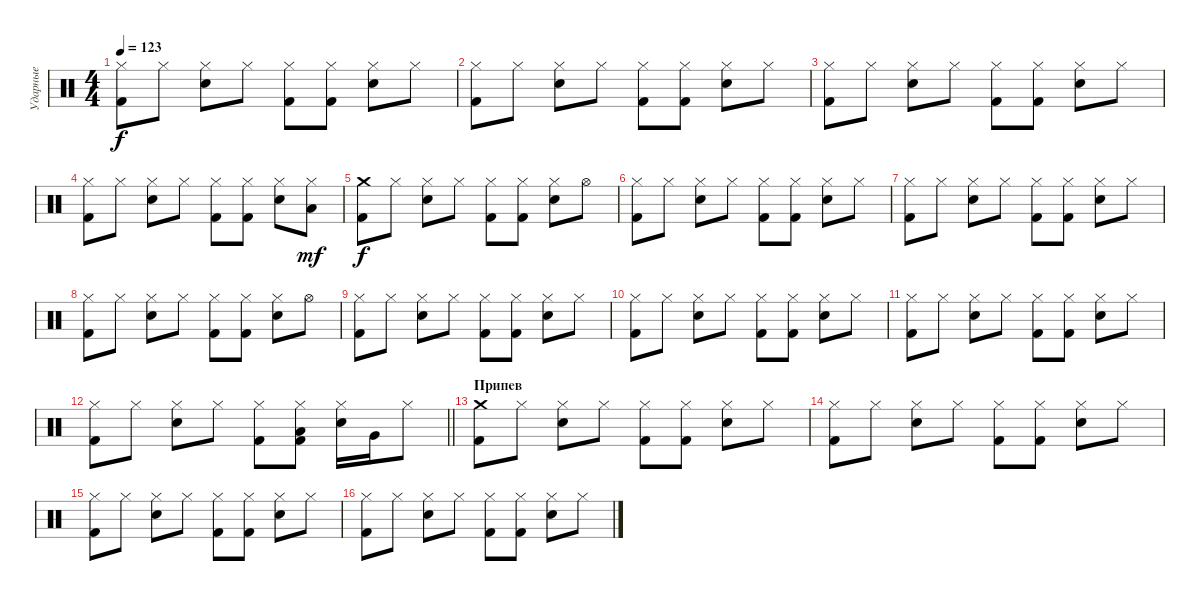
\track ("Ударные" "Ударные") {instrument percussion}
\staff {score}
\articulation defaults
\ts (4 4)
\tempo 123
\clef neutral
\ks c
("Hi-Hat (closed)" "Kick (hit) 2").8{dy f} "Hi-Hat (closed)".8 ("Hi-Hat (closed)" "Electric Snare (hit)").8 "Hi-Hat (closed)".8 ("Hi-Hat (closed)" "Kick (hit) 2").8 ("Hi-Hat (closed)" "Kick (hit) 2").8 ("Hi-Hat (closed)" "Electric Snare (hit)").8 "Hi-Hat (closed)".8 |
("Hi-Hat (closed)" "Kick (hit) 2").8 "Hi-Hat (closed)".8 ("Hi-Hat (closed)" "Electric Snare (hit)").8 "Hi-Hat (closed)".8 ("Hi-Hat (closed)" "Kick (hit) 2").8 ("Hi-Hat (closed)" "Kick (hit) 2").8 ("Hi-Hat (closed)" "Electric Snare (hit)").8 "Hi-Hat (closed)".8 |
("Hi-Hat (closed)" "Kick (hit) 2").8 "Hi-Hat (closed)".8 ("Hi-Hat (closed)" "Electric Snare (hit)").8 "Hi-Hat (closed)".8 ("Hi-Hat (closed)" "Kick (hit) 2").8 ("Hi-Hat (closed)" "Kick (hit) 2").8 ("Hi-Hat (closed)" "Electric Snare (hit)").8 "Hi-Hat (closed)".8 |
("Hi-Hat (closed)" "Kick (hit) 2").8 "Hi-Hat (closed)".8 ("Hi-Hat (closed)" "Electric Snare (hit)").8 "Hi-Hat (closed)".8 ("Hi-Hat (closed)" "Kick (hit) 2").8 ("Hi-Hat (closed)" "Kick (hit) 2").8 ("Hi-Hat (closed)" "Electric Snare (hit)").8 ("Hi-Hat (closed)" "Low Tom (hit)").8{dy mf} |
("Crash medium (hit)" "Kick (hit) 2").8{dy f} "Hi-Hat (closed)".8 ("Hi-Hat (closed)" "Electric Snare (hit)").8 "Hi-Hat (closed)".8 ("Hi-Hat (closed)" "Kick (hit) 2").8 ("Hi-Hat (closed)" "Kick (hit) 2").8 ("Hi-Hat (closed)" "Electric Snare (hit)").8 "Hi-Hat (open)".8 |
("Hi-Hat (closed)" "Kick (hit) 2").8 "Hi-Hat (closed)".8 ("Hi-Hat (closed)" "Electric Snare (hit)").8 "Hi-Hat (closed)".8 ("Hi-Hat (closed)" "Kick (hit) 2").8 ("Hi-Hat (closed)" "Kick (hit) 2").8 ("Hi-Hat (closed)" "Electric Snare (hit)").8 "Hi-Hat (closed)".8 |
("Hi-Hat (closed)" "Kick (hit) 2").8 "Hi-Hat (closed)".8 ("Hi-Hat (closed)" "Electric Snare (hit)").8 "Hi-Hat (closed)".8 ("Hi-Hat (closed)" "Kick (hit) 2").8 ("Hi-Hat (closed)" "Kick (hit) 2").8 ("Hi-Hat (closed)" "Electric Snare (hit)").8 "Hi-Hat (closed)".8 |
("Hi-Hat (closed)" "Kick (hit) 2").8 "Hi-Hat (closed)".8 ("Hi-Hat (closed)" "Electric Snare (hit)").8 "Hi-Hat (closed)".8 ("Hi-Hat (closed)" "Kick (hit) 2").8 ("Hi-Hat (closed)" "Kick (hit) 2").8 ("Hi-Hat (closed)" "Electric Snare (hit)").8 "Hi-Hat (open)".8 |
("Hi-Hat (closed)" "Kick (hit) 2").8 "Hi-Hat (closed)".8 ("Hi-Hat (closed)" "Electric Snare (hit)").8 "Hi-Hat (closed)".8 ("Hi-Hat (closed)" "Kick (hit) 2").8 ("Hi-Hat (closed)" "Kick (hit) 2").8 ("Hi-Hat (closed)" "Electric Snare (hit)").8 "Hi-Hat (closed)".8 |
("Hi-Hat (closed)" "Kick (hit) 2").8 "Hi-Hat (closed)".8 ("Hi-Hat (closed)" "Electric Snare (hit)").8 "Hi-Hat (closed)".8 ("Hi-Hat (closed)" "Kick (hit) 2").8 ("Hi-Hat (closed)" "Kick (hit) 2").8 ("Hi-Hat (closed)" "Electric Snare (hit)").8 "Hi-Hat (closed)".8 |
("Hi-Hat (closed)" "Kick (hit) 2").8 "Hi-Hat (closed)".8 ("Hi-Hat (closed)" "Electric Snare (hit)").8 "Hi-Hat (closed)".8 ("Hi-Hat (closed)" "Kick (hit) 2").8 ("Hi-Hat (closed)" "Kick (hit) 2").8 ("Hi-Hat (closed)" "Electric Snare (hit)").8 "Hi-Hat (closed)".8 |
\barLineRight lightlight
("Hi-Hat (closed)" "Kick (hit) 2").8 "Hi-Hat (closed)".8 ("Hi-Hat (closed)" "Electric Snare (hit)").8 "Hi-Hat (closed)".8 ("Hi-Hat (closed)" "Kick (hit) 2").8 ("Hi-Hat (closed)" "Low Tom (hit)" "Kick (hit) 2").8 ("Hi-Hat (closed)" "Electric Snare (hit)").16 "Very Low Tom (hit)".16 "Hi-Hat (closed)".8 |
\section ("" "Припев")
("Crash medium (hit)" "Kick (hit) 2").8 "Hi-Hat (closed)".8 ("Hi-Hat (closed)" "Electric Snare (hit)").8 "Hi-Hat (closed)".8 ("Hi-Hat (closed)" "Kick (hit) 2").8 ("Hi-Hat (closed)" "Kick (hit) 2").8 ("Hi-Hat (closed)" "Electric Snare (hit)").8 "Hi-Hat (closed)".8 |
("Hi-Hat (closed)" "Kick (hit) 2").8 "Hi-Hat (closed)".8 ("Hi-Hat (closed)" "Electric Snare (hit)").8 "Hi-Hat (closed)".8 ("Hi-Hat (closed)" "Kick (hit) 2").8 ("Hi-Hat (closed)" "Kick (hit) 2").8 ("Hi-Hat (closed)" "Electric Snare (hit)").8 "Hi-Hat (closed)".8 |
("Hi-Hat (closed)" "Kick (hit) 2").8 "Hi-Hat (closed)".8 ("Hi-Hat (closed)" "Electric Snare (hit)").8 "Hi-Hat (closed)".8 ("Hi-Hat (closed)" "Kick (hit) 2").8 ("Hi-Hat (closed)" "Kick (hit) 2").8 ("Hi-Hat (closed)" "Electric Snare (hit)").8 "Hi-Hat (closed)".8 |
("Hi-Hat (closed)" "Kick (hit) 2").8 "Hi-Hat (closed)".8 ("Hi-Hat (closed)" "Electric Snare (hit)").8 "Hi-Hat (closed)".8 ("Hi-Hat (closed)" "Kick (hit) 2").8 ("Hi-Hat (closed)" "Kick (hit) 2").8 ("Hi-Hat (closed)" "Electric Snare (hit)").8 "Hi-Hat (closed)".8
